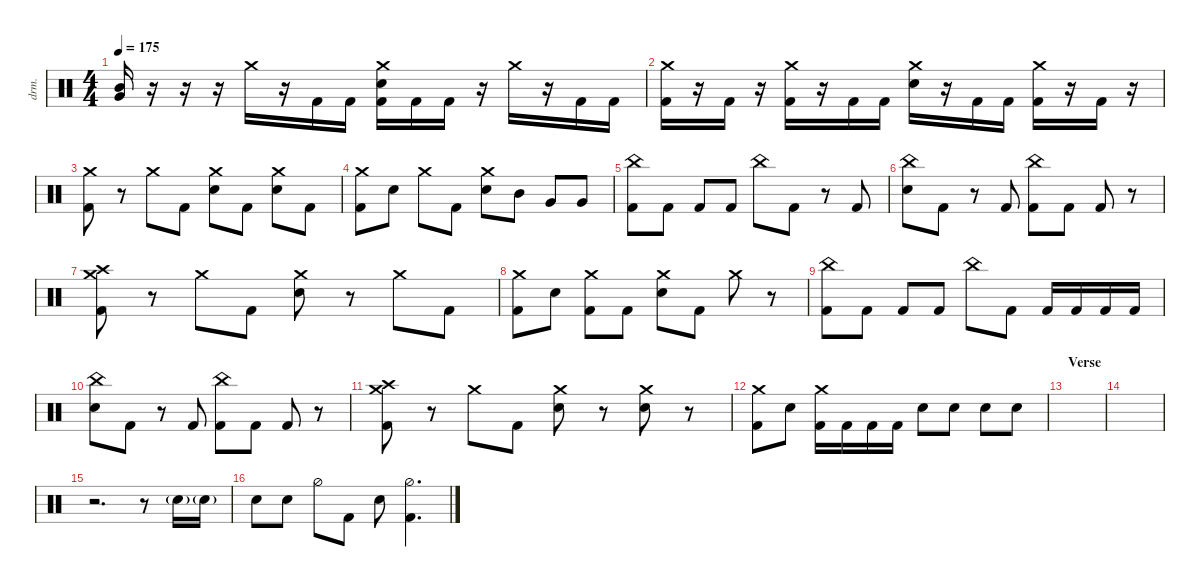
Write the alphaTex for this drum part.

\defaultSystemsLayout 4
\hideDynamics
\bracketExtendMode nobrackets
\track ("Drums - Mario" "drm.") {instrument percussion}
\staff {score}
\articulation defaults
\ts (4 4)
\tempo 175
\clef neutral
\ks c
("Very Low Tom (hit)" "Mid Tom (hit)").16{dy ff} r.16 r.16 r.16 "Crash medium (hit)".16 r.16 "Kick (hit) 2".16 "Kick (hit) 2".16 ("Kick (hit) 2" "Snare (hit) 2" "Crash medium (hit)").16 "Kick (hit) 2".16 "Kick (hit) 2".16 r.16 "Crash medium (hit)".16 r.16 "Kick (hit) 2".16 "Kick (hit) 2".16 |
("Kick (hit) 2" "Crash medium (hit)").16 r.16 "Kick (hit) 2".16 r.16 ("Kick (hit) 2" "Crash medium (hit)").16 r.16 "Kick (hit) 2".16 "Kick (hit) 2".16 ("Snare (hit) 2" "Crash medium (hit)").16 r.16 "Kick (hit) 2".16 "Kick (hit) 2".16 ("Kick (hit) 2" "Crash medium (hit)").16 r.16 "Kick (hit) 2".16 r.16 |
("Kick (hit) 2" "Crash medium (hit)").8 r.8 "Crash medium (hit)".8 "Kick (hit) 2".8 ("Snare (hit) 2" "Crash medium (hit)").8 "Kick (hit) 2".8 ("Snare (hit) 2" "Crash medium (hit)").8 "Kick (hit) 2".8 |
("Kick (hit) 2" "Crash medium (hit)").8 "Snare (hit) 2".8 "Crash medium (hit)".8 "Kick (hit) 2".8 ("Snare (hit) 2" "Crash medium (hit)").8 "Mid Tom (hit)".8 "Very Low Tom (hit)".8 "Very Low Tom (hit)".8 |
("China (hit)" "Kick (hit) 2").8 "Kick (hit) 2".8 "Kick (hit) 2".8 "Kick (hit) 2".8 "China (hit)".8 "Kick (hit) 2".8 r.8 "Kick (hit) 2".8 |
("Snare (hit) 2" "China (hit)").8 "Kick (hit) 2".8 r.8 "Kick (hit) 2".8 ("Kick (hit) 2" "China (hit)").8 "Kick (hit) 2".8 "Kick (hit) 2".8 r.8 |
("Crash medium (hit)" "Crash high (hit)" "Kick (hit) 2").8 r.8 "Crash medium (hit)".8 "Kick (hit) 2".8 ("Snare (hit) 2" "Crash medium (hit)").8 r.8 "Crash medium (hit)".8 "Kick (hit) 2".8 |
("Kick (hit) 2" "Crash medium (hit)").8 "Snare (hit) 2".8 ("Kick (hit) 2" "Crash medium (hit)").8 "Kick (hit) 2".8 ("Snare (hit) 2" "Crash medium (hit)").8 "Kick (hit) 2".8 "Crash medium (hit)".8 r.8 |
("China (hit)" "Kick (hit) 2").8 "Kick (hit) 2".8 "Kick (hit) 2".8 "Kick (hit) 2".8 "China (hit)".8 "Kick (hit) 2".8 "Kick (hit) 2".16 "Kick (hit) 2".16 "Kick (hit) 2".16 "Kick (hit) 2".16 |
("Snare (hit) 2" "China (hit)").8 "Kick (hit) 2".8 r.8 "Kick (hit) 2".8 ("Kick (hit) 2" "China (hit)").8 "Kick (hit) 2".8 "Kick (hit) 2".8 r.8 |
("Crash medium (hit)" "Crash high (hit)" "Kick (hit) 2").8 r.8 "Crash medium (hit)".8 "Kick (hit) 2".8 ("Snare (hit) 2" "Crash medium (hit)").8 r.8 ("Crash medium (hit)" "Snare (hit) 2").8 r.8 |
("Kick (hit) 2" "Crash medium (hit)").8 "Snare (hit) 2".8 ("Kick (hit) 2" "Crash medium (hit)").16 "Kick (hit) 2".16 "Kick (hit) 2".16 "Kick (hit) 2".16 "Snare (hit) 2".8 "Snare (hit) 2".8 "Snare (hit) 2".8 "Snare (hit) 2".8 |
\section ("" "Verse")
|
|
r.2{d} r.8 "Snare (hit) 2"{g}.16 "Snare (hit) 2"{g}.16 |
"Snare (hit) 2".8 "Snare (hit) 2".8 "Hi-Hat (half)".8 "Kick (hit) 2".8 "Snare (hit) 2".8 ("Kick (hit) 2" "Hi-Hat (half)").4{d}
